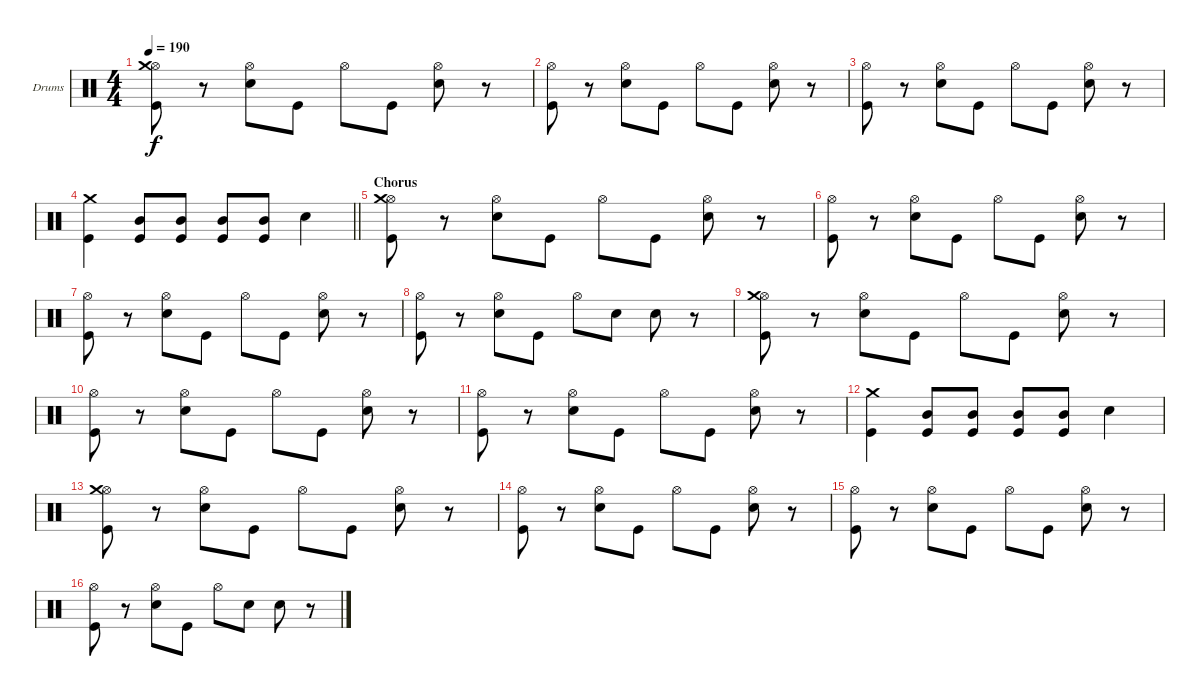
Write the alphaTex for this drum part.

\bracketExtendMode groupsimilarinstruments
\firstSystemTrackNameOrientation horizontal
\otherSystemsTrackNameOrientation horizontal
\track ("Drumkit" "Drums") {instrument percussion}
\staff {score}
\articulation defaults
\ts (4 4)
\tempo 190
\clef neutral
\ks c
("Hi-Hat (open)" "Crash medium (hit)" "Kick (hit)").8{dy f} r.8 ("Hi-Hat (open)" "Snare (hit) 2").8 "Kick (hit)".8 "Hi-Hat (open)".8 "Kick (hit)".8 ("Hi-Hat (open)" "Snare (hit) 2").8 r.8 |
("Hi-Hat (open)" "Kick (hit)").8 r.8 ("Hi-Hat (open)" "Snare (hit) 2").8 "Kick (hit)".8 "Hi-Hat (open)".8 "Kick (hit)".8 ("Hi-Hat (open)" "Snare (hit) 2").8 r.8 |
("Hi-Hat (open)" "Kick (hit)").8 r.8 ("Hi-Hat (open)" "Snare (hit) 2").8 "Kick (hit)".8 "Hi-Hat (open)".8 "Kick (hit)".8 ("Hi-Hat (open)" "Snare (hit) 2").8 r.8 |
\barLineRight lightlight
("Crash medium (hit)" "Kick (hit)").4 ("Kick (hit)" "Mid Tom (hit)").8 ("Kick (hit)" "Mid Tom (hit)").8 ("Kick (hit)" "Mid Tom (hit)").8 ("Kick (hit)" "Mid Tom (hit)").8 "Snare (hit) 2".4 |
\section ("" "Chorus")
("Hi-Hat (open)" "Crash medium (hit)" "Kick (hit)").8 r.8 ("Hi-Hat (open)" "Snare (hit) 2").8 "Kick (hit)".8 "Hi-Hat (open)".8 "Kick (hit)".8 ("Hi-Hat (open)" "Snare (hit) 2").8 r.8 |
("Hi-Hat (open)" "Kick (hit)").8 r.8 ("Hi-Hat (open)" "Snare (hit) 2").8 "Kick (hit)".8 "Hi-Hat (open)".8 "Kick (hit)".8 ("Hi-Hat (open)" "Snare (hit) 2").8 r.8 |
("Hi-Hat (open)" "Kick (hit)").8 r.8 ("Hi-Hat (open)" "Snare (hit) 2").8 "Kick (hit)".8 "Hi-Hat (open)".8 "Kick (hit)".8 ("Hi-Hat (open)" "Snare (hit) 2").8 r.8 |
("Hi-Hat (open)" "Kick (hit)").8 r.8 ("Hi-Hat (open)" "Snare (hit) 2").8 "Kick (hit)".8 "Hi-Hat (open)".8 "Snare (hit) 2".8 "Snare (hit) 2".8 r.8 |
("Hi-Hat (open)" "Crash medium (hit)" "Kick (hit)").8 r.8 ("Hi-Hat (open)" "Snare (hit) 2").8 "Kick (hit)".8 "Hi-Hat (open)".8 "Kick (hit)".8 ("Hi-Hat (open)" "Snare (hit) 2").8 r.8 |
("Hi-Hat (open)" "Kick (hit)").8 r.8 ("Hi-Hat (open)" "Snare (hit) 2").8 "Kick (hit)".8 "Hi-Hat (open)".8 "Kick (hit)".8 ("Hi-Hat (open)" "Snare (hit) 2").8 r.8 |
("Hi-Hat (open)" "Kick (hit)").8 r.8 ("Hi-Hat (open)" "Snare (hit) 2").8 "Kick (hit)".8 "Hi-Hat (open)".8 "Kick (hit)".8 ("Hi-Hat (open)" "Snare (hit) 2").8 r.8 |
("Crash medium (hit)" "Kick (hit)").4 ("Kick (hit)" "Mid Tom (hit)").8 ("Kick (hit)" "Mid Tom (hit)").8 ("Kick (hit)" "Mid Tom (hit)").8 ("Kick (hit)" "Mid Tom (hit)").8 "Snare (hit) 2".4 |
("Hi-Hat (open)" "Crash medium (hit)" "Kick (hit)").8 r.8 ("Hi-Hat (open)" "Snare (hit) 2").8 "Kick (hit)".8 "Hi-Hat (open)".8 "Kick (hit)".8 ("Hi-Hat (open)" "Snare (hit) 2").8 r.8 |
("Hi-Hat (open)" "Kick (hit)").8 r.8 ("Hi-Hat (open)" "Snare (hit) 2").8 "Kick (hit)".8 "Hi-Hat (open)".8 "Kick (hit)".8 ("Hi-Hat (open)" "Snare (hit) 2").8 r.8 |
("Hi-Hat (open)" "Kick (hit)").8 r.8 ("Hi-Hat (open)" "Snare (hit) 2").8 "Kick (hit)".8 "Hi-Hat (open)".8 "Kick (hit)".8 ("Hi-Hat (open)" "Snare (hit) 2").8 r.8 |
("Hi-Hat (open)" "Kick (hit)").8 r.8 ("Hi-Hat (open)" "Snare (hit) 2").8 "Kick (hit)".8 "Hi-Hat (open)".8 "Snare (hit) 2".8 "Snare (hit) 2".8 r.8
